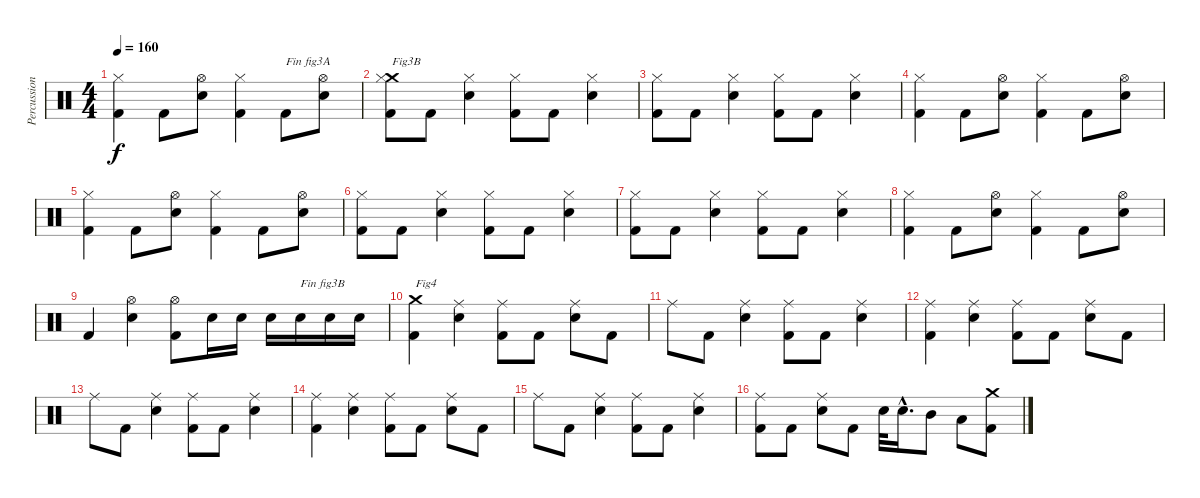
\track ("Percussions" "Percussion") {instrument percussion}
\staff {score}
\articulation defaults
\ts (4 4)
\tempo 160
\clef neutral
\ks c
("Kick (hit) 2" "Hi-Hat (closed)").4{dy f} "Kick (hit) 2".8 ("Electric Snare (hit)" "Hi-Hat (open)").8 ("Kick (hit) 2" "Hi-Hat (closed)").4 "Kick (hit) 2".8{txt "Fin fig3A"} ("Electric Snare (hit)" "Hi-Hat (open)").8 |
("Kick (hit) 2" "Crash medium (hit)" "Hi-Hat (closed)").8{txt "Fig3B"} "Kick (hit) 2".8 ("Electric Snare (hit)" "Hi-Hat (closed)").4 ("Kick (hit) 2" "Hi-Hat (closed)").8 "Kick (hit) 2".8 ("Electric Snare (hit)" "Hi-Hat (closed)").4 |
("Kick (hit) 2" "Hi-Hat (closed)").8 "Kick (hit) 2".8 ("Electric Snare (hit)" "Hi-Hat (closed)").4 ("Kick (hit) 2" "Hi-Hat (closed)").8 "Kick (hit) 2".8 ("Electric Snare (hit)" "Hi-Hat (closed)").4 |
("Kick (hit) 2" "Hi-Hat (closed)").4 "Kick (hit) 2".8 ("Electric Snare (hit)" "Hi-Hat (open)").8 ("Kick (hit) 2" "Hi-Hat (closed)").4 "Kick (hit) 2".8 ("Electric Snare (hit)" "Hi-Hat (open)").8 |
("Kick (hit) 2" "Hi-Hat (closed)").4 "Kick (hit) 2".8 ("Electric Snare (hit)" "Hi-Hat (open)").8 ("Kick (hit) 2" "Hi-Hat (closed)").4 "Kick (hit) 2".8 ("Electric Snare (hit)" "Hi-Hat (open)").8 |
("Kick (hit) 2" "Hi-Hat (closed)").8 "Kick (hit) 2".8 ("Electric Snare (hit)" "Hi-Hat (closed)").4 ("Kick (hit) 2" "Hi-Hat (closed)").8 "Kick (hit) 2".8 ("Electric Snare (hit)" "Hi-Hat (closed)").4 |
("Kick (hit) 2" "Hi-Hat (closed)").8 "Kick (hit) 2".8 ("Electric Snare (hit)" "Hi-Hat (closed)").4 ("Kick (hit) 2" "Hi-Hat (closed)").8 "Kick (hit) 2".8 ("Electric Snare (hit)" "Hi-Hat (closed)").4 |
("Kick (hit) 2" "Hi-Hat (closed)").4 "Kick (hit) 2".8 ("Electric Snare (hit)" "Hi-Hat (open)").8 ("Kick (hit) 2" "Hi-Hat (closed)").4 "Kick (hit) 2".8 ("Electric Snare (hit)" "Hi-Hat (open)").8 |
"Kick (hit) 2".4 ("Electric Snare (hit)" "Hi-Hat (open)").4 ("Kick (hit) 2" "Hi-Hat (open)").8 "Electric Snare (hit)".16 "Electric Snare (hit)".16 "Electric Snare (hit)".16 "Electric Snare (hit)".16{txt "Fin fig3B"} "Electric Snare (hit)".16 "Electric Snare (hit)".16 |
("Kick (hit) 2" "Crash medium (hit)").4{txt "Fig4"} ("Electric Snare (hit)" "Ride (middle)").4 ("Kick (hit) 2" "Ride (middle)").8 "Kick (hit) 2".8 ("Electric Snare (hit)" "Ride (middle)").8 "Kick (hit) 2".8 |
"Ride (middle)".8 "Kick (hit) 2".8 ("Electric Snare (hit)" "Ride (middle)").4 ("Kick (hit) 2" "Ride (middle)").8 "Kick (hit) 2".8 ("Electric Snare (hit)" "Ride (middle)").4 |
("Kick (hit) 2" "Ride (middle)").4 ("Electric Snare (hit)" "Ride (middle)").4 ("Kick (hit) 2" "Ride (middle)").8 "Kick (hit) 2".8 ("Electric Snare (hit)" "Ride (middle)").8 "Kick (hit) 2".8 |
"Ride (middle)".8 "Kick (hit) 2".8 ("Electric Snare (hit)" "Ride (middle)").4 ("Kick (hit) 2" "Ride (middle)").8 "Kick (hit) 2".8 ("Electric Snare (hit)" "Ride (middle)").4 |
("Kick (hit) 2" "Ride (middle)").4 ("Electric Snare (hit)" "Ride (middle)").4 ("Kick (hit) 2" "Ride (middle)").8 "Kick (hit) 2".8 ("Electric Snare (hit)" "Ride (middle)").8 "Kick (hit) 2".8 |
"Ride (middle)".8 "Kick (hit) 2".8 ("Electric Snare (hit)" "Ride (middle)").4 ("Kick (hit) 2" "Ride (middle)").8 "Kick (hit) 2".8 ("Electric Snare (hit)" "Ride (middle)").4 |
("Kick (hit) 2" "Ride (middle)").8 "Kick (hit) 2".8 ("Electric Snare (hit)" "Ride (middle)").8 "Kick (hit) 2".8 "Electric Snare (hit)".32 "Electric Snare (hit)"{hac}.16{d} "Mid Tom (hit)".8 "Low Tom (hit)".8 ("Kick (hit) 2" "Crash medium (hit)").8
